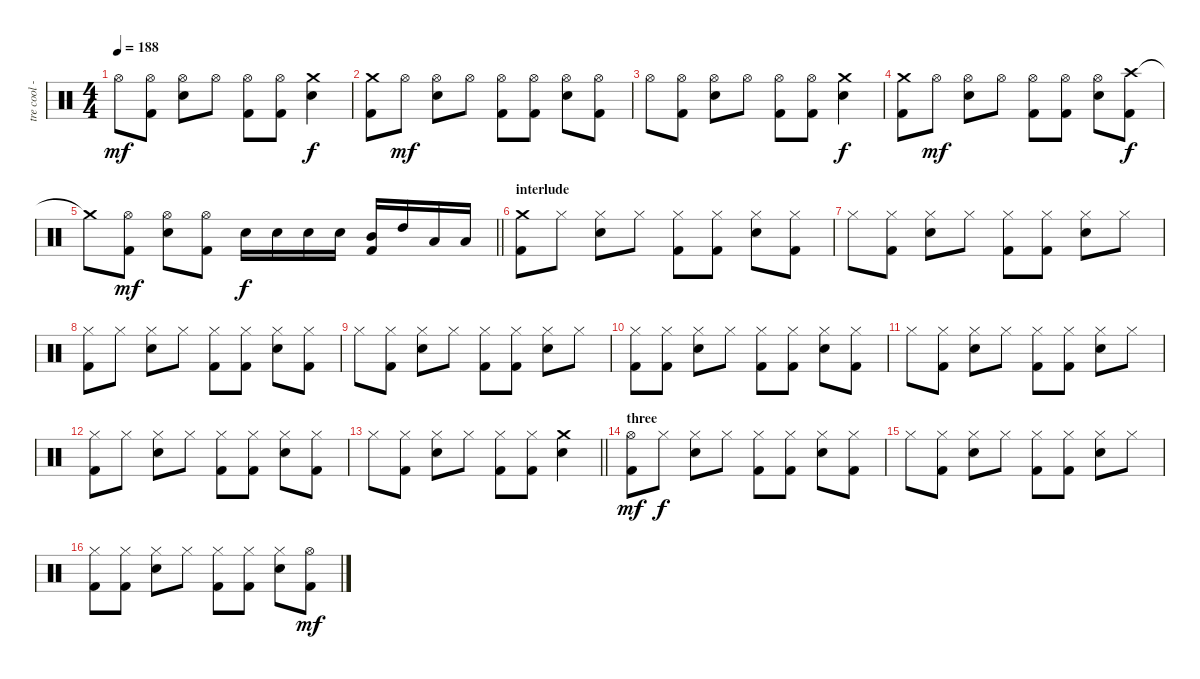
\track ("tre cool - drums" "tre cool -") {instrument percussion}
\staff {score}
\articulation defaults
\ts (4 4)
\tempo 188
\clef neutral
\ks c "Hi-Hat (open)".8{dy mf}
("Hi-Hat (open)" "Kick (hit) 2").8 ("Hi-Hat (open)" "Electric Snare (hit)").8 "Hi-Hat (open)".8 ("Hi-Hat (open)" "Kick (hit) 2").8 ("Hi-Hat (open)" "Kick (hit) 2").8 ("Crash medium (hit)" "Electric Snare (hit)").4{dy f} |
("Crash medium (hit)" "Kick (hit) 2").8 "Hi-Hat (open)".8{dy mf} ("Hi-Hat (open)" "Electric Snare (hit)").8 "Hi-Hat (open)".8 ("Hi-Hat (open)" "Kick (hit) 2").8 ("Hi-Hat (open)" "Kick (hit) 2").8 ("Hi-Hat (open)" "Electric Snare (hit)").8 ("Hi-Hat (open)" "Kick (hit) 2").8 |
"Hi-Hat (open)".8 ("Hi-Hat (open)" "Kick (hit) 2").8 ("Hi-Hat (open)" "Electric Snare (hit)").8 "Hi-Hat (open)".8 ("Hi-Hat (open)" "Kick (hit) 2").8 ("Hi-Hat (open)" "Kick (hit) 2").8 ("Crash medium (hit)" "Electric Snare (hit)").4{dy f} |
("Crash medium (hit)" "Kick (hit) 2").8 "Hi-Hat (open)".8{dy mf} ("Hi-Hat (open)" "Electric Snare (hit)").8 "Hi-Hat (open)".8 ("Hi-Hat (open)" "Kick (hit) 2").8 ("Hi-Hat (open)" "Kick (hit) 2").8 ("Hi-Hat (open)" "Electric Snare (hit)").8 ("Crash high (hit)" "Kick (hit) 2").8{dy f} |
\barLineRight lightlight "Crash medium (hit)"{t}.8
("Hi-Hat (open)" "Kick (hit) 2").8{dy mf} ("Hi-Hat (open)" "Electric Snare (hit)").8 ("Hi-Hat (open)" "Kick (hit) 2").8 "Electric Snare (hit)".16{dy f} "Electric Snare (hit)".16 "Electric Snare (hit)".16 "Electric Snare (hit)".16 ("Mid Tom (hit)" "Kick (hit) 2").16 "High Tom (hit)".16 "Low Tom (hit)".16 "Low Tom (hit)".16 |
\section ("" "interlude")
("Crash medium (hit)" "Kick (hit) 2").8 "Hi-Hat (closed)".8 ("Hi-Hat (closed)" "Electric Snare (hit)").8 "Hi-Hat (closed)".8 ("Hi-Hat (closed)" "Kick (hit) 2").8 ("Hi-Hat (closed)" "Kick (hit) 2").8 ("Hi-Hat (closed)" "Electric Snare (hit)").8 ("Hi-Hat (closed)" "Kick (hit) 2").8 |
"Hi-Hat (closed)".8 ("Hi-Hat (closed)" "Kick (hit) 2").8 ("Hi-Hat (closed)" "Electric Snare (hit)").8 "Hi-Hat (closed)".8 ("Hi-Hat (closed)" "Kick (hit) 2").8 ("Hi-Hat (closed)" "Kick (hit) 2").8 ("Hi-Hat (closed)" "Electric Snare (hit)").8 "Hi-Hat (closed)".8 |
("Hi-Hat (closed)" "Kick (hit) 2").8 "Hi-Hat (closed)".8 ("Hi-Hat (closed)" "Electric Snare (hit)").8 "Hi-Hat (closed)".8 ("Hi-Hat (closed)" "Kick (hit) 2").8 ("Hi-Hat (closed)" "Kick (hit) 2").8 ("Hi-Hat (closed)" "Electric Snare (hit)").8 ("Hi-Hat (closed)" "Kick (hit) 2").8 |
"Hi-Hat (closed)".8 ("Hi-Hat (closed)" "Kick (hit) 2").8 ("Hi-Hat (closed)" "Electric Snare (hit)").8 "Hi-Hat (closed)".8 ("Hi-Hat (closed)" "Kick (hit) 2").8 ("Hi-Hat (closed)" "Kick (hit) 2").8 ("Hi-Hat (closed)" "Electric Snare (hit)").8 "Hi-Hat (closed)".8 |
("Hi-Hat (closed)" "Kick (hit) 2").8 ("Hi-Hat (closed)" "Kick (hit) 2").8 ("Hi-Hat (closed)" "Electric Snare (hit)").8 "Hi-Hat (closed)".8 ("Hi-Hat (closed)" "Kick (hit) 2").8 ("Hi-Hat (closed)" "Kick (hit) 2").8 ("Hi-Hat (closed)" "Electric Snare (hit)").8 ("Hi-Hat (closed)" "Kick (hit) 2").8 |
"Hi-Hat (closed)".8 ("Hi-Hat (closed)" "Kick (hit) 2").8 ("Hi-Hat (closed)" "Electric Snare (hit)").8 "Hi-Hat (closed)".8 ("Hi-Hat (closed)" "Kick (hit) 2").8 ("Hi-Hat (closed)" "Kick (hit) 2").8 ("Hi-Hat (closed)" "Electric Snare (hit)").8 "Hi-Hat (closed)".8 |
("Hi-Hat (closed)" "Kick (hit) 2").8 "Hi-Hat (closed)".8 ("Hi-Hat (closed)" "Electric Snare (hit)").8 "Hi-Hat (closed)".8 ("Hi-Hat (closed)" "Kick (hit) 2").8 ("Hi-Hat (closed)" "Kick (hit) 2").8 ("Hi-Hat (closed)" "Electric Snare (hit)").8 ("Hi-Hat (closed)" "Kick (hit) 2").8 |
\barLineRight lightlight "Hi-Hat (closed)".8
("Hi-Hat (closed)" "Kick (hit) 2").8 ("Hi-Hat (closed)" "Electric Snare (hit)").8 "Hi-Hat (closed)".8 ("Hi-Hat (closed)" "Kick (hit) 2").8 ("Hi-Hat (closed)" "Kick (hit) 2").8 ("Crash medium (hit)" "Electric Snare (hit)").4 |
\section ("" "three")
("Hi-Hat (open)" "Kick (hit) 2").8{dy mf} "Hi-Hat (closed)".8{dy f} ("Hi-Hat (closed)" "Electric Snare (hit)").8 "Hi-Hat (closed)".8 ("Hi-Hat (closed)" "Kick (hit) 2").8 ("Hi-Hat (closed)" "Kick (hit) 2").8 ("Hi-Hat (closed)" "Electric Snare (hit)").8 ("Hi-Hat (closed)" "Kick (hit) 2").8 |
"Hi-Hat (closed)".8 ("Hi-Hat (closed)" "Kick (hit) 2").8 ("Hi-Hat (closed)" "Electric Snare (hit)").8 "Hi-Hat (closed)".8 ("Hi-Hat (closed)" "Kick (hit) 2").8 ("Hi-Hat (closed)" "Kick (hit) 2").8 ("Hi-Hat (closed)" "Electric Snare (hit)").8 "Hi-Hat (closed)".8 |
("Hi-Hat (closed)" "Kick (hit) 2").8 ("Hi-Hat (closed)" "Kick (hit) 2").8 ("Hi-Hat (closed)" "Electric Snare (hit)").8 "Hi-Hat (closed)".8 ("Hi-Hat (closed)" "Kick (hit) 2").8 ("Hi-Hat (closed)" "Kick (hit) 2").8 ("Hi-Hat (closed)" "Electric Snare (hit)").8 ("Hi-Hat (open)" "Kick (hit) 2").8{dy mf}
